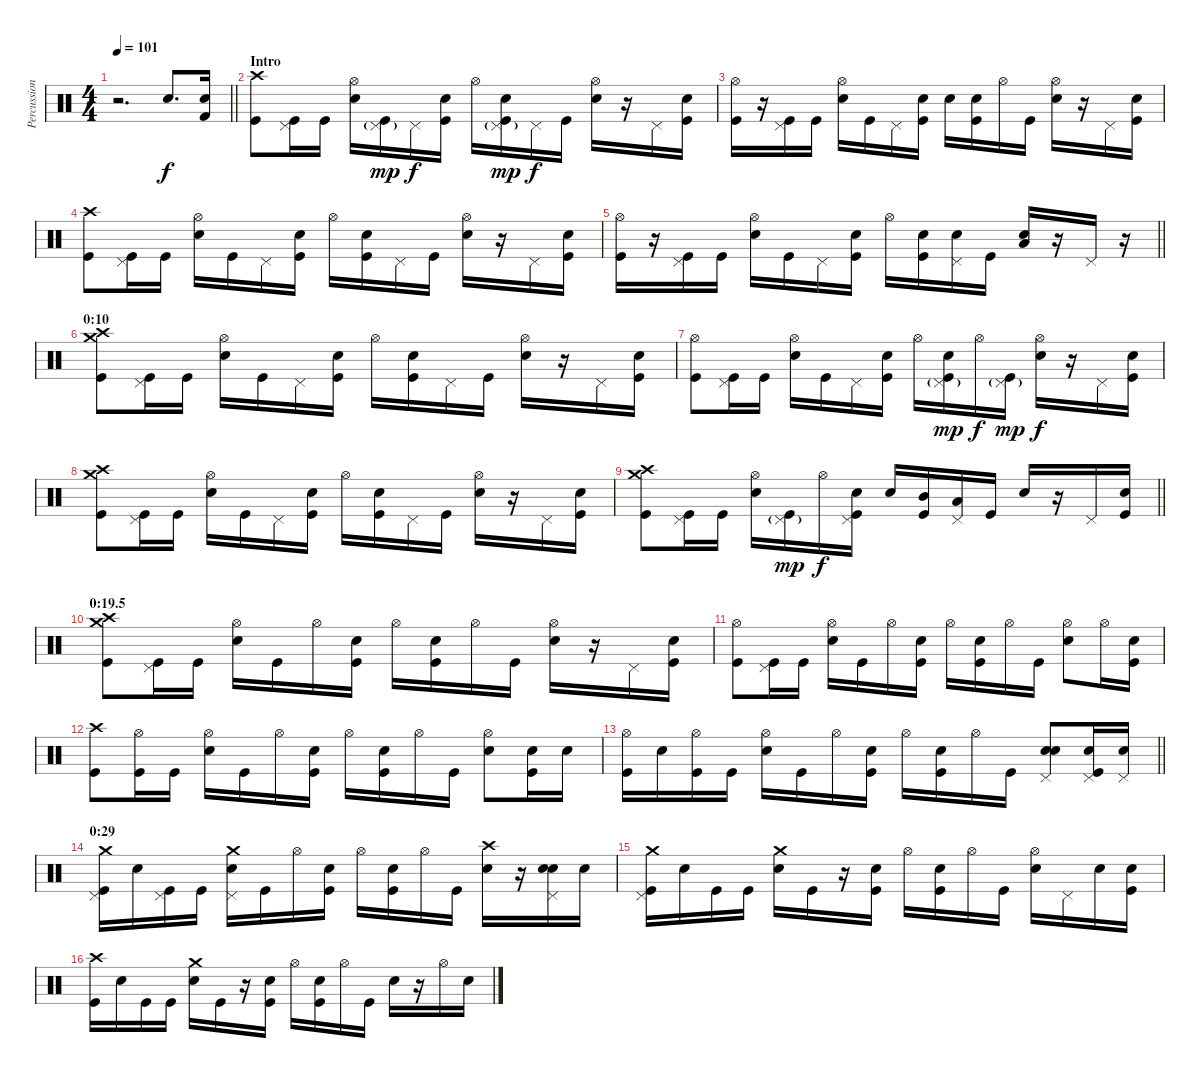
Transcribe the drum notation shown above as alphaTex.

\track ("Percussion" "Percussion") {instrument percussion}
\staff {score}
\articulation defaults
\ts (4 4)
\tempo 101
\clef neutral
\barLineRight lightlight
\ks c
r.2{d dy f} "Snare (hit) 2".8{d} ("Snare (hit) 2" "Kick (hit) 2").16 |
\section ("" "Intro")
("Crash high (hit)" "Kick (hit)").8 ("Kick (hit)" "Pedal Hi-Hat (hit)").16 "Kick (hit)".16 ("Hi-Hat (open)" "Snare (hit) 2").16 ("Kick (hit)" "Pedal Hi-Hat (hit)"{g}).16{dy mp} "Pedal Hi-Hat (hit)".16{dy f} ("Snare (hit) 2" "Kick (hit)").16 "Hi-Hat (open)".16 ("Snare (hit) 2" "Kick (hit)" "Pedal Hi-Hat (hit)"{g}).16{dy mp} "Pedal Hi-Hat (hit)".16{dy f} "Kick (hit)".16 ("Hi-Hat (open)" "Snare (hit) 2").16 r.16 "Pedal Hi-Hat (hit)".16 ("Snare (hit) 2" "Kick (hit)").16 |
("Hi-Hat (open)" "Kick (hit)").16 r.16 ("Kick (hit)" "Pedal Hi-Hat (hit)").16 "Kick (hit)".16 ("Hi-Hat (open)" "Snare (hit) 2").16 "Kick (hit)".16 "Pedal Hi-Hat (hit)".16 ("Snare (hit) 2" "Kick (hit)").16 "Snare (hit) 2".16 ("Snare (hit) 2" "Kick (hit)").16 "Hi-Hat (open)".16 "Kick (hit)".16 ("Hi-Hat (open)" "Snare (hit) 2").16 r.16 "Pedal Hi-Hat (hit)".16 ("Snare (hit) 2" "Kick (hit)").16 |
("Crash high (hit)" "Kick (hit)").8 ("Kick (hit)" "Pedal Hi-Hat (hit)").16 "Kick (hit)".16 ("Hi-Hat (open)" "Snare (hit) 2").16 "Kick (hit)".16 "Pedal Hi-Hat (hit)".16 ("Snare (hit) 2" "Kick (hit)").16 "Hi-Hat (open)".16 ("Snare (hit) 2" "Kick (hit)").16 "Pedal Hi-Hat (hit)".16 "Kick (hit)".16 ("Hi-Hat (open)" "Snare (hit) 2").16 r.16 "Pedal Hi-Hat (hit)".16 ("Snare (hit) 2" "Kick (hit)").16 |
\barLineRight lightlight
("Hi-Hat (open)" "Kick (hit)").16 r.16 ("Kick (hit)" "Pedal Hi-Hat (hit)").16 "Kick (hit)".16 ("Hi-Hat (open)" "Snare (hit) 2").16 "Kick (hit)".16 "Pedal Hi-Hat (hit)".16 ("Snare (hit) 2" "Kick (hit)").16 "Hi-Hat (open)".16 ("Snare (hit) 2" "Kick (hit)").16 ("Snare (hit) 2" "Pedal Hi-Hat (hit)").16 "Kick (hit)".16 ("Low Tom (hit)" "Snare (hit) 2").16 r.16 "Pedal Hi-Hat (hit)".16 r.16 |
\section ("" "0:10")
("Crash high (hit)" "Crash medium (hit)" "Kick (hit)").8 ("Kick (hit)" "Pedal Hi-Hat (hit)").16 "Kick (hit)".16 ("Hi-Hat (open)" "Snare (hit) 2").16 "Kick (hit)".16 "Pedal Hi-Hat (hit)".16 ("Snare (hit) 2" "Kick (hit)").16 "Hi-Hat (open)".16 ("Snare (hit) 2" "Kick (hit)").16 "Pedal Hi-Hat (hit)".16 "Kick (hit)".16 ("Hi-Hat (open)" "Snare (hit) 2").16 r.16 "Pedal Hi-Hat (hit)".16 ("Snare (hit) 2" "Kick (hit)").16 |
("Hi-Hat (open)" "Kick (hit)").8 ("Kick (hit)" "Pedal Hi-Hat (hit)").16 "Kick (hit)".16 ("Hi-Hat (open)" "Snare (hit) 2").16 "Kick (hit)".16 "Pedal Hi-Hat (hit)".16 ("Snare (hit) 2" "Kick (hit)").16 "Hi-Hat (open)".16 ("Snare (hit) 2" "Kick (hit)" "Pedal Hi-Hat (hit)"{g}).16{dy mp} "Hi-Hat (open)".16{dy f} ("Kick (hit)" "Pedal Hi-Hat (hit)"{g}).16{dy mp} ("Hi-Hat (open)" "Snare (hit) 2").16{dy f} r.16 "Pedal Hi-Hat (hit)".16 ("Snare (hit) 2" "Kick (hit)").16 |
("Crash high (hit)" "Crash medium (hit)" "Kick (hit)").8 ("Kick (hit)" "Pedal Hi-Hat (hit)").16 "Kick (hit)".16 ("Hi-Hat (open)" "Snare (hit) 2").16 "Kick (hit)".16 "Pedal Hi-Hat (hit)".16 ("Snare (hit) 2" "Kick (hit)").16 "Hi-Hat (open)".16 ("Snare (hit) 2" "Kick (hit)").16 "Pedal Hi-Hat (hit)".16 "Kick (hit)".16 ("Hi-Hat (open)" "Snare (hit) 2").16 r.16 "Pedal Hi-Hat (hit)".16 ("Snare (hit) 2" "Kick (hit)").16 |
\barLineRight lightlight
("Crash high (hit)" "Crash medium (hit)" "Kick (hit)").8 ("Kick (hit)" "Pedal Hi-Hat (hit)").16 "Kick (hit)".16 ("Hi-Hat (open)" "Snare (hit) 2").16 ("Kick (hit)" "Pedal Hi-Hat (hit)"{g}).16{dy mp} "Hi-Hat (open)".16{dy f} ("Snare (hit) 2" "Kick (hit)" "Pedal Hi-Hat (hit)").16 "Snare (hit) 2".16 ("Mid Tom (hit)" "Kick (hit)").16 ("Low Tom (hit)" "Pedal Hi-Hat (hit)").16 "Kick (hit)".16 "Snare (hit) 2".16 r.16 "Pedal Hi-Hat (hit)".16 ("Snare (hit) 2" "Kick (hit)").16 |
\section ("" "0:19.5")
("Crash high (hit)" "Crash medium (hit)" "Kick (hit)").8 ("Kick (hit)" "Pedal Hi-Hat (hit)").16 "Kick (hit)".16 ("Hi-Hat (open)" "Snare (hit) 2").16 "Kick (hit)".16 "Hi-Hat (open)".16 ("Snare (hit) 2" "Kick (hit)").16 "Hi-Hat (open)".16 ("Snare (hit) 2" "Kick (hit)").16 "Hi-Hat (open)".16 "Kick (hit)".16 ("Hi-Hat (open)" "Snare (hit) 2").16 r.16 "Pedal Hi-Hat (hit)".16 ("Snare (hit) 2" "Kick (hit)").16 |
("Hi-Hat (open)" "Kick (hit)").8 ("Kick (hit)" "Pedal Hi-Hat (hit)").16 "Kick (hit)".16 ("Hi-Hat (open)" "Snare (hit) 2").16 "Kick (hit)".16 "Hi-Hat (open)".16 ("Snare (hit) 2" "Kick (hit)").16 "Hi-Hat (open)".16 ("Snare (hit) 2" "Kick (hit)").16 "Hi-Hat (open)".16 "Kick (hit)".16 ("Hi-Hat (open)" "Snare (hit) 2").8 "Hi-Hat (open)".16 ("Snare (hit) 2" "Kick (hit)").16 |
("Crash high (hit)" "Kick (hit)").8 ("Hi-Hat (open)" "Kick (hit)").16 "Kick (hit)".16 ("Hi-Hat (open)" "Snare (hit) 2").16 "Kick (hit)".16 "Hi-Hat (open)".16 ("Snare (hit) 2" "Kick (hit)").16 "Hi-Hat (open)".16 ("Snare (hit) 2" "Kick (hit)").16 "Hi-Hat (open)".16 "Kick (hit)".16 ("Hi-Hat (open)" "Snare (hit) 2").8 ("Snare (hit) 2" "Kick (hit)").16 "Snare (hit) 2".16 |
\barLineRight lightlight
("Hi-Hat (open)" "Kick (hit)").16 "Snare (hit) 2".16 ("Hi-Hat (open)" "Kick (hit)").16 "Kick (hit)".16 ("Hi-Hat (open)" "Snare (hit) 2").16 "Kick (hit)".16 "Hi-Hat (open)".16 ("Snare (hit) 2" "Kick (hit)").16 "Hi-Hat (open)".16 ("Snare (hit) 2" "Kick (hit)").16 "Hi-Hat (open)".16 "Kick (hit)".16 ("Snare (hit) 2" "Snare (hit) 2" "Pedal Hi-Hat (hit)").8 ("Snare (hit) 2" "Kick (hit)" "Pedal Hi-Hat (hit)").16 ("Snare (hit) 2" "Pedal Hi-Hat (hit)").16 |
\section ("" "0:29")
("Crash medium (hit)" "Kick (hit)" "Pedal Hi-Hat (hit)").16 "Snare (hit) 2".16 ("Kick (hit)" "Pedal Hi-Hat (hit)").16 "Kick (hit)".16 ("Crash medium (hit)" "Snare (hit) 2" "Pedal Hi-Hat (hit)").16 "Kick (hit)".16 "Hi-Hat (open)".16 ("Snare (hit) 2" "Kick (hit)").16 "Hi-Hat (open)".16 ("Snare (hit) 2" "Kick (hit)").16 "Hi-Hat (open)".16 "Kick (hit)".16 ("Crash high (hit)" "Snare (hit) 2").16 r.16 ("Snare (hit) 2" "Snare (hit) 2" "Pedal Hi-Hat (hit)").16 "Snare (hit) 2".16 |
("Crash medium (hit)" "Kick (hit)" "Pedal Hi-Hat (hit)").16 "Snare (hit) 2".16 "Kick (hit)".16 "Kick (hit)".16 ("Crash medium (hit)" "Snare (hit) 2").16 "Kick (hit)".16 r.16 ("Snare (hit) 2" "Kick (hit)").16 "Hi-Hat (open)".16 ("Snare (hit) 2" "Kick (hit)").16 "Hi-Hat (open)".16 "Kick (hit)".16 ("Hi-Hat (open)" "Snare (hit) 2").16 "Pedal Hi-Hat (hit)".16 "Snare (hit) 2".16 ("Snare (hit) 2" "Kick (hit)").16 |
("Crash high (hit)" "Kick (hit)").16 "Snare (hit) 2".16 "Kick (hit)".16 "Kick (hit)".16 ("Crash medium (hit)" "Snare (hit) 2").16 "Kick (hit)".16 r.16 ("Snare (hit) 2" "Kick (hit)").16 "Hi-Hat (open)".16 ("Snare (hit) 2" "Kick (hit)").16 "Hi-Hat (open)".16 "Kick (hit)".16 "Snare (hit) 2".16 r.16 "Hi-Hat (open)".16 "Snare (hit) 2".16
